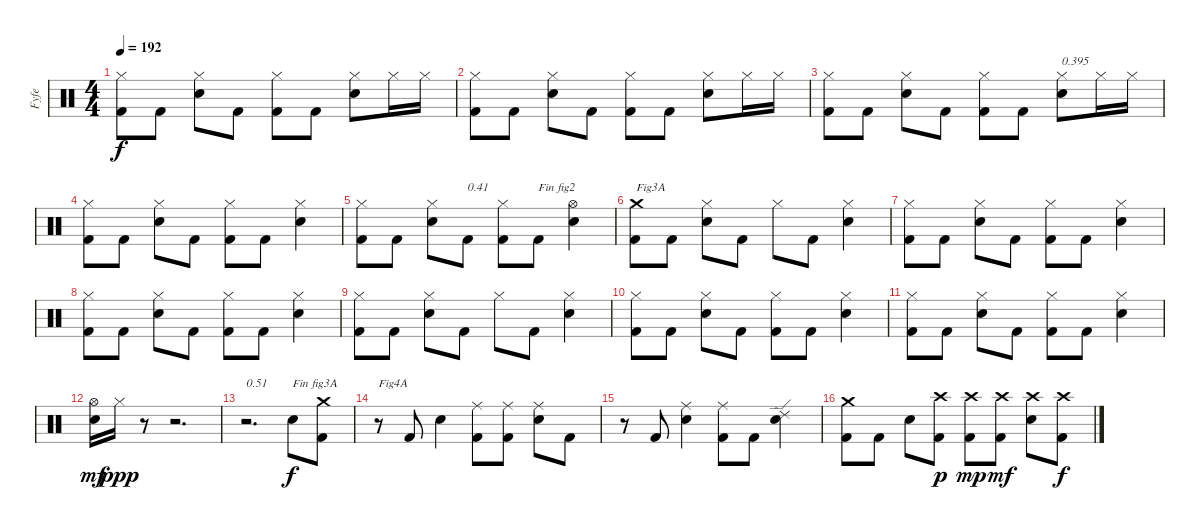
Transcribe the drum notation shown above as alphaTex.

\track ("Fyfe" "Fyfe") {instrument percussion}
\staff {score}
\articulation defaults
\ts (4 4)
\tempo 192
\clef neutral
\ks c
("Kick (hit) 2" "Hi-Hat (closed)").8{dy f} "Kick (hit) 2".8 ("Electric Snare (hit)" "Hi-Hat (closed)").8 "Kick (hit) 2".8 ("Kick (hit) 2" "Hi-Hat (closed)").8 "Kick (hit) 2".8 ("Electric Snare (hit)" "Hi-Hat (closed)").8 "Hi-Hat (closed)".16 "Hi-Hat (closed)".16 |
("Kick (hit) 2" "Hi-Hat (closed)").8 "Kick (hit) 2".8 ("Electric Snare (hit)" "Hi-Hat (closed)").8 "Kick (hit) 2".8 ("Kick (hit) 2" "Hi-Hat (closed)").8 "Kick (hit) 2".8 ("Electric Snare (hit)" "Hi-Hat (closed)").8 "Hi-Hat (closed)".16 "Hi-Hat (closed)".16 |
("Kick (hit) 2" "Hi-Hat (closed)").8 "Kick (hit) 2".8 ("Electric Snare (hit)" "Hi-Hat (closed)").8 "Kick (hit) 2".8 ("Kick (hit) 2" "Hi-Hat (closed)").8 "Kick (hit) 2".8 ("Electric Snare (hit)" "Hi-Hat (closed)").8{txt "0.395"} "Hi-Hat (closed)".16 "Hi-Hat (closed)".16 |
("Kick (hit) 2" "Hi-Hat (closed)").8 "Kick (hit) 2".8 ("Electric Snare (hit)" "Hi-Hat (closed)").8 "Kick (hit) 2".8 ("Kick (hit) 2" "Hi-Hat (closed)").8 "Kick (hit) 2".8 ("Electric Snare (hit)" "Hi-Hat (closed)").4 |
("Kick (hit) 2" "Hi-Hat (closed)").8 "Kick (hit) 2".8 ("Electric Snare (hit)" "Hi-Hat (closed)").8 "Kick (hit) 2".8{txt "0.41"} ("Kick (hit) 2" "Hi-Hat (closed)").8 "Kick (hit) 2".8{txt "Fin fig2"} ("Electric Snare (hit)" "Hi-Hat (open)").4 |
("Kick (hit) 2" "Crash medium (hit)").8{txt "Fig3A"} "Kick (hit) 2".8 ("Electric Snare (hit)" "Hi-Hat (closed)").8 "Kick (hit) 2".8 "Hi-Hat (closed)".8 "Kick (hit) 2".8 ("Electric Snare (hit)" "Hi-Hat (closed)").4 |
("Kick (hit) 2" "Hi-Hat (closed)").8 "Kick (hit) 2".8 ("Electric Snare (hit)" "Hi-Hat (closed)").8 "Kick (hit) 2".8 ("Kick (hit) 2" "Hi-Hat (closed)").8 "Kick (hit) 2".8 ("Electric Snare (hit)" "Hi-Hat (closed)").4 |
("Kick (hit) 2" "Hi-Hat (closed)").8 "Kick (hit) 2".8 ("Electric Snare (hit)" "Hi-Hat (closed)").8 "Kick (hit) 2".8 ("Kick (hit) 2" "Hi-Hat (closed)").8 "Kick (hit) 2".8 ("Electric Snare (hit)" "Hi-Hat (closed)").4 |
("Kick (hit) 2" "Hi-Hat (closed)").8 "Kick (hit) 2".8 ("Electric Snare (hit)" "Hi-Hat (closed)").8 "Kick (hit) 2".8 "Hi-Hat (closed)".8 "Kick (hit) 2".8 ("Electric Snare (hit)" "Hi-Hat (closed)").4 |
("Kick (hit) 2" "Hi-Hat (closed)").8 "Kick (hit) 2".8 ("Electric Snare (hit)" "Hi-Hat (closed)").8 "Kick (hit) 2".8 ("Kick (hit) 2" "Hi-Hat (closed)").8 "Kick (hit) 2".8 ("Electric Snare (hit)" "Hi-Hat (closed)").4 |
("Kick (hit) 2" "Hi-Hat (closed)").8 "Kick (hit) 2".8 ("Electric Snare (hit)" "Hi-Hat (closed)").8 "Kick (hit) 2".8 ("Kick (hit) 2" "Hi-Hat (closed)").8 "Kick (hit) 2".8 ("Electric Snare (hit)" "Hi-Hat (closed)").4 |
("Electric Snare (hit)" "Hi-Hat (open)").16{dy mf} "Hi-Hat (closed)".16{dy ppp} r.8 r.2{d} |
r.2{d txt "0.51"} "Electric Snare (hit)".8{txt "Fin fig3A" dy f} ("Kick (hit) 2" "Crash medium (hit)").8 |
r.8{txt "Fig4A"} "Kick (hit) 2".8 "Electric Snare (hit)".4 ("Kick (hit) 2" "Ride (middle)").8 ("Kick (hit) 2" "Ride (middle)").8 ("Electric Snare (hit)" "Ride (middle)").8 "Kick (hit) 2".8 |
r.8 "Kick (hit) 2".8 ("Electric Snare (hit)" "Ride (middle)").4 ("Kick (hit) 2" "Ride (middle)").8 "Kick (hit) 2".8 ("Electric Snare (hit)" "Ride (edge) 2").4 |
("Kick (hit) 2" "Crash medium (hit)").8 "Kick (hit) 2".8 "Electric Snare (hit)".8 ("Kick (hit) 2" "Crash high (hit)").8{dy p} ("Kick (hit) 2" "Crash high (hit)").8{dy mp} ("Kick (hit) 2" "Crash high (hit)").8{dy mf} ("Electric Snare (hit)" "Crash high (hit)").8 ("Kick (hit) 2" "Crash high (hit)").8{dy f}
